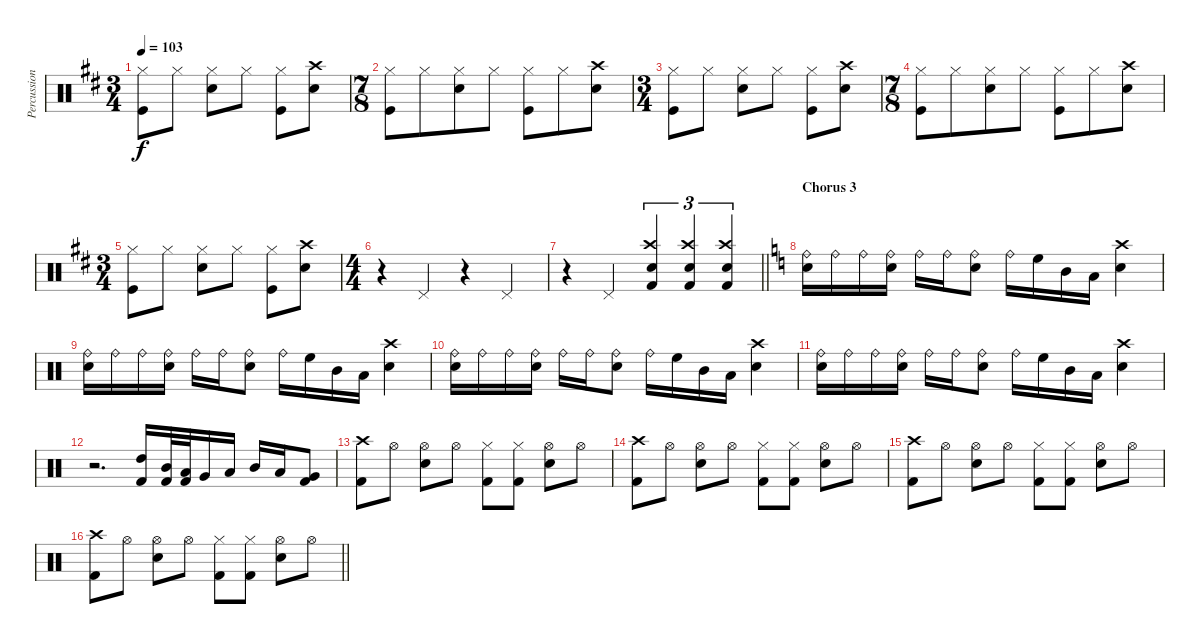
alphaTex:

\track ("Percussion" "Percussion") {instrument percussion}
\staff {score}
\articulation defaults
\ts (3 4)
\tempo 103
\clef neutral
\ks d
("Hi-Hat (closed)" "Kick (hit)").8{dy f} "Hi-Hat (closed)".8 ("Hi-Hat (closed)" "Snare (hit) 2").8 "Hi-Hat (closed)".8 ("Hi-Hat (closed)" "Kick (hit)").8 ("Crash high (hit)" "Snare (hit) 2").8 |
\ts (7 8)
("Hi-Hat (closed)" "Kick (hit)").8 "Hi-Hat (closed)".8 ("Hi-Hat (closed)" "Snare (hit) 2").8 "Hi-Hat (closed)".8 ("Hi-Hat (closed)" "Kick (hit)").8 "Hi-Hat (closed)".8 ("Crash high (hit)" "Snare (hit) 2").8 |
\ts (3 4)
("Hi-Hat (closed)" "Kick (hit)").8 "Hi-Hat (closed)".8 ("Hi-Hat (closed)" "Snare (hit) 2").8 "Hi-Hat (closed)".8 ("Hi-Hat (closed)" "Kick (hit)").8 ("Crash high (hit)" "Snare (hit) 2").8 |
\ts (7 8)
("Hi-Hat (closed)" "Kick (hit)").8 "Hi-Hat (closed)".8 ("Hi-Hat (closed)" "Snare (hit) 2").8 "Hi-Hat (closed)".8 ("Hi-Hat (closed)" "Kick (hit)").8 "Hi-Hat (closed)".8 ("Crash high (hit)" "Snare (hit) 2").8 |
\ts (3 4)
("Hi-Hat (closed)" "Kick (hit)").8 "Hi-Hat (closed)".8 ("Hi-Hat (closed)" "Snare (hit) 2").8 "Hi-Hat (closed)".8 ("Hi-Hat (closed)" "Kick (hit)").8 ("Crash high (hit)" "Snare (hit) 2").8 |
\ts (4 4)
r.4 "Pedal Hi-Hat (hit)".4 r.4 "Pedal Hi-Hat (hit)".4 |
\barLineRight lightlight
r.4 "Pedal Hi-Hat (hit)".4 ("Crash high (hit)" "Snare (hit) 2" "Kick (hit) 2").4{tu (3 2)} ("Crash high (hit)" "Snare (hit) 2" "Kick (hit) 2").4{tu (3 2)} ("Crash high (hit)" "Snare (hit) 2" "Kick (hit) 2").4{tu (3 2)} |
\section ("" "Chorus 3")
\ks c
("Ride (bell)" "Snare (hit) 2").16 "Ride (bell)".16 "Ride (bell)".16 ("Ride (bell)" "Snare (hit) 2").16 "Ride (bell)".16 "Ride (bell)".16 ("Ride (bell)" "Snare (hit) 2").8 "Ride (bell)".16 "High Floor Tom (hit)".16 "Mid Tom (hit)".16 "Low Floor Tom (hit)".16 ("Crash high (hit)" "Snare (hit) 2").4 |
("Ride (bell)" "Snare (hit) 2").16 "Ride (bell)".16 "Ride (bell)".16 ("Ride (bell)" "Snare (hit) 2").16 "Ride (bell)".16 "Ride (bell)".16 ("Ride (bell)" "Snare (hit) 2").8 "Ride (bell)".16 "High Floor Tom (hit)".16 "Mid Tom (hit)".16 "Low Floor Tom (hit)".16 ("Crash high (hit)" "Snare (hit) 2").4 |
("Ride (bell)" "Snare (hit) 2").16 "Ride (bell)".16 "Ride (bell)".16 ("Ride (bell)" "Snare (hit) 2").16 "Ride (bell)".16 "Ride (bell)".16 ("Ride (bell)" "Snare (hit) 2").8 "Ride (bell)".16 "High Floor Tom (hit)".16 "Mid Tom (hit)".16 "Low Floor Tom (hit)".16 ("Crash high (hit)" "Snare (hit) 2").4 |
("Ride (bell)" "Snare (hit) 2").16 "Ride (bell)".16 "Ride (bell)".16 ("Ride (bell)" "Snare (hit) 2").16 "Ride (bell)".16 "Ride (bell)".16 ("Ride (bell)" "Snare (hit) 2").8 "Ride (bell)".16 "High Floor Tom (hit)".16 "Mid Tom (hit)".16 "Low Floor Tom (hit)".16 ("Crash high (hit)" "Snare (hit) 2").4 |
r.2{d} ("High Tom (hit)" "Kick (hit) 2").16 ("Mid Tom (hit)" "Kick (hit) 2").32 ("Low Tom (hit)" "Kick (hit) 2").32 "Very Low Tom (hit)".16 "Low Floor Tom (hit)".16 "Mid Tom (hit)".16 "Low Tom (hit)".16 ("Very Low Tom (hit)" "Kick (hit) 2").8 |
("Crash high (hit)" "Kick (hit) 2").8 "Hi-Hat (open)".8 ("Hi-Hat (open)" "Snare (hit) 2").8 "Hi-Hat (open)".8 ("Hi-Hat (closed)" "Kick (hit) 2").8 ("Hi-Hat (closed)" "Kick (hit) 2").8 ("Hi-Hat (open)" "Snare (hit) 2").8 "Hi-Hat (open)".8 |
("Crash high (hit)" "Kick (hit) 2").8 "Hi-Hat (open)".8 ("Hi-Hat (open)" "Snare (hit) 2").8 "Hi-Hat (open)".8 ("Hi-Hat (closed)" "Kick (hit) 2").8 ("Hi-Hat (closed)" "Kick (hit) 2").8 ("Hi-Hat (open)" "Snare (hit) 2").8 "Hi-Hat (open)".8 |
("Crash high (hit)" "Kick (hit) 2").8 "Hi-Hat (open)".8 ("Hi-Hat (open)" "Snare (hit) 2").8 "Hi-Hat (open)".8 ("Hi-Hat (closed)" "Kick (hit) 2").8 ("Hi-Hat (closed)" "Kick (hit) 2").8 ("Hi-Hat (open)" "Snare (hit) 2").8 "Hi-Hat (open)".8 |
\barLineRight lightlight
("Crash high (hit)" "Kick (hit) 2").8 "Hi-Hat (open)".8 ("Hi-Hat (open)" "Snare (hit) 2").8 "Hi-Hat (open)".8 ("Hi-Hat (closed)" "Kick (hit) 2").8 ("Hi-Hat (closed)" "Kick (hit) 2").8 ("Hi-Hat (open)" "Snare (hit) 2").8 "Hi-Hat (open)".8
